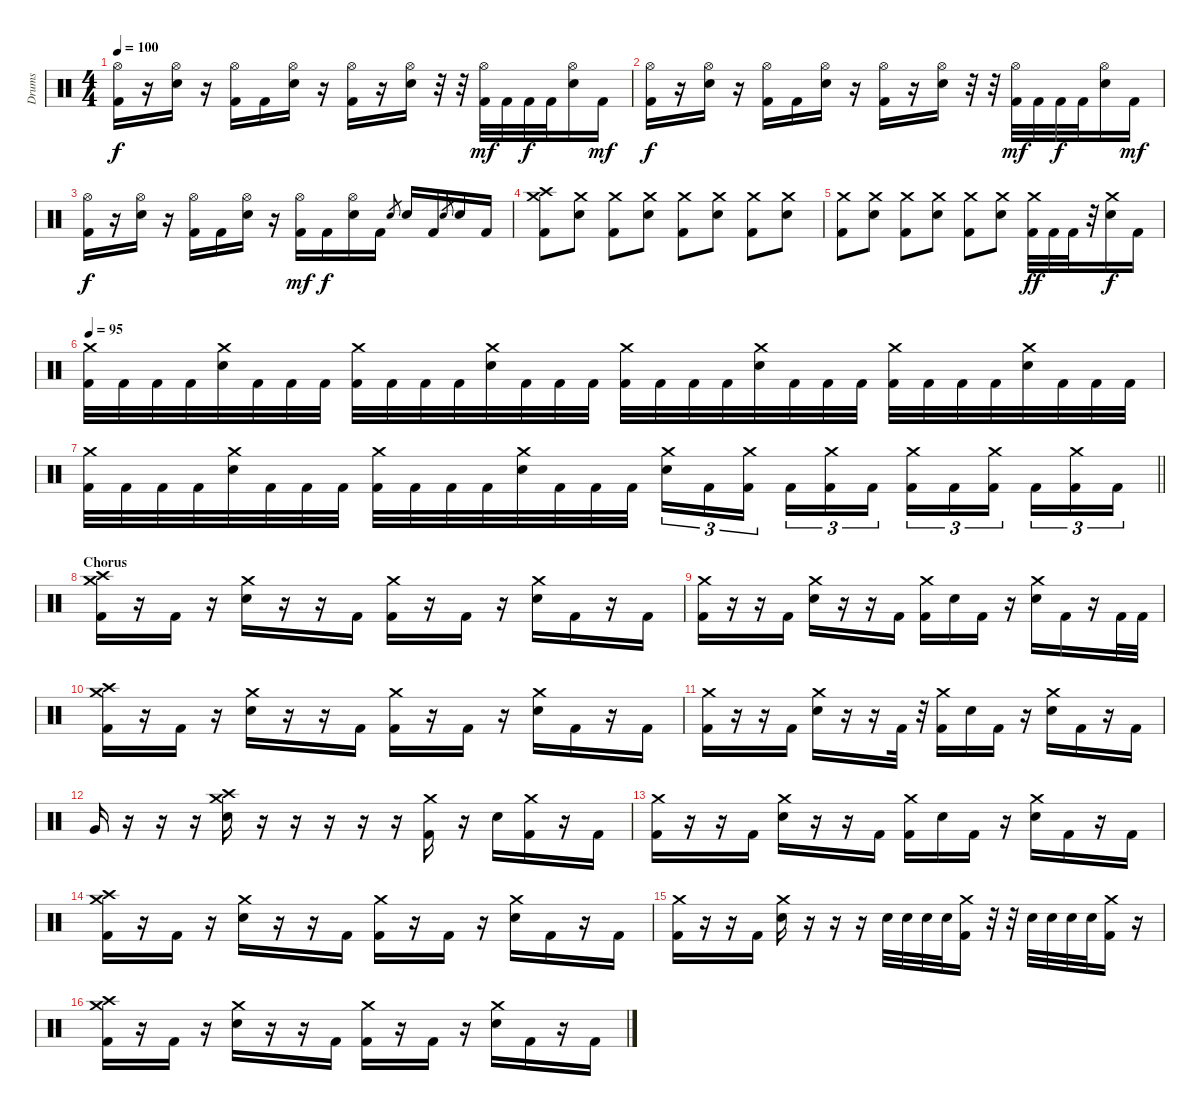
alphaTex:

\track ("Drums" "Drums") {instrument percussion}
\staff {score}
\articulation defaults
\ts (4 4)
\tempo 100
\clef neutral
\ks c
("Hi-Hat (open)" "Kick (hit) 2").16{dy f} r.16 ("Hi-Hat (open)" "Electric Snare (hit)").16 r.16 ("Hi-Hat (open)" "Kick (hit) 2").16 "Kick (hit) 2".16 ("Hi-Hat (open)" "Electric Snare (hit)").16 r.16 ("Hi-Hat (open)" "Kick (hit) 2").16 r.16 ("Hi-Hat (open)" "Electric Snare (hit)").16 r.32 r.32 ("Hi-Hat (open)" "Kick (hit) 2").32{dy mf} "Kick (hit) 2".32 "Kick (hit) 2".32{dy f} "Kick (hit) 2".32 ("Hi-Hat (open)" "Electric Snare (hit)").16 "Kick (hit) 2".16{dy mf} |
("Hi-Hat (open)" "Kick (hit) 2").16{dy f} r.16 ("Hi-Hat (open)" "Electric Snare (hit)").16 r.16 ("Hi-Hat (open)" "Kick (hit) 2").16 "Kick (hit) 2".16 ("Hi-Hat (open)" "Electric Snare (hit)").16 r.16 ("Hi-Hat (open)" "Kick (hit) 2").16 r.16 ("Hi-Hat (open)" "Electric Snare (hit)").16 r.32 r.32 ("Hi-Hat (open)" "Kick (hit) 2").32{dy mf} "Kick (hit) 2".32 "Kick (hit) 2".32{dy f} "Kick (hit) 2".32 ("Hi-Hat (open)" "Electric Snare (hit)").16 "Kick (hit) 2".16{dy mf} |
("Hi-Hat (open)" "Kick (hit) 2").16{dy f} r.16 ("Hi-Hat (open)" "Electric Snare (hit)").16 r.16 ("Hi-Hat (open)" "Kick (hit) 2").16 "Kick (hit) 2".16 ("Hi-Hat (open)" "Electric Snare (hit)").16 r.16 ("Hi-Hat (open)" "Kick (hit) 2").16{dy mf} "Kick (hit) 2".16{dy f} ("Hi-Hat (open)" "Electric Snare (hit)").16 "Kick (hit) 2".16 "Electric Snare (hit)".8{gr} "Electric Snare (hit)".16 "Kick (hit) 2".16 "Electric Snare (hit)".8{gr} "Electric Snare (hit)".16 "Kick (hit) 2".16 |
("Crash high (hit)" "Crash medium (hit)" "Kick (hit) 2").8 ("Crash medium (hit)" "Electric Snare (hit)").8 ("Crash medium (hit)" "Kick (hit) 2").8 ("Crash medium (hit)" "Electric Snare (hit)").8 ("Crash medium (hit)" "Kick (hit) 2").8 ("Crash medium (hit)" "Electric Snare (hit)").8 ("Crash medium (hit)" "Kick (hit) 2").8 ("Crash medium (hit)" "Electric Snare (hit)").8 |
("Crash medium (hit)" "Kick (hit) 2").8 ("Crash medium (hit)" "Electric Snare (hit)").8 ("Crash medium (hit)" "Kick (hit) 2").8 ("Crash medium (hit)" "Electric Snare (hit)").8 ("Crash medium (hit)" "Kick (hit) 2").8 ("Crash medium (hit)" "Electric Snare (hit)").8 ("Crash medium (hit)" "Kick (hit) 2").32{dy ff} "Kick (hit) 2".32 "Kick (hit) 2".32 r.32 ("Crash medium (hit)" "Electric Snare (hit)").16{dy f} "Kick (hit) 2".16 |
\tempo 95
("Crash medium (hit)" "Kick (hit) 2").32 "Kick (hit) 2".32 "Kick (hit) 2".32 "Kick (hit) 2".32 ("Crash medium (hit)" "Electric Snare (hit)").32 "Kick (hit) 2".32 "Kick (hit) 2".32 "Kick (hit) 2".32 ("Crash medium (hit)" "Kick (hit) 2").32 "Kick (hit) 2".32 "Kick (hit) 2".32 "Kick (hit) 2".32 ("Crash medium (hit)" "Electric Snare (hit)").32 "Kick (hit) 2".32 "Kick (hit) 2".32 "Kick (hit) 2".32 ("Crash medium (hit)" "Kick (hit) 2").32 "Kick (hit) 2".32 "Kick (hit) 2".32 "Kick (hit) 2".32 ("Crash medium (hit)" "Electric Snare (hit)").32 "Kick (hit) 2".32 "Kick (hit) 2".32 "Kick (hit) 2".32 ("Crash medium (hit)" "Kick (hit) 2").32 "Kick (hit) 2".32 "Kick (hit) 2".32 "Kick (hit) 2".32 ("Crash medium (hit)" "Electric Snare (hit)").32 "Kick (hit) 2".32 "Kick (hit) 2".32 "Kick (hit) 2".32 |
\barLineRight lightlight
("Crash medium (hit)" "Kick (hit) 2").32 "Kick (hit) 2".32 "Kick (hit) 2".32 "Kick (hit) 2".32 ("Crash medium (hit)" "Electric Snare (hit)").32 "Kick (hit) 2".32 "Kick (hit) 2".32 "Kick (hit) 2".32 ("Crash medium (hit)" "Kick (hit) 2").32 "Kick (hit) 2".32 "Kick (hit) 2".32 "Kick (hit) 2".32 ("Crash medium (hit)" "Electric Snare (hit)").32 "Kick (hit) 2".32 "Kick (hit) 2".32 "Kick (hit) 2".32 ("Crash medium (hit)" "Electric Snare (hit)").16{tu (3 2)} "Kick (hit) 2".16{tu (3 2)} ("Crash medium (hit)" "Kick (hit) 2").16{tu (3 2) beam splitsecondary} "Kick (hit) 2".16{tu (3 2)} ("Crash medium (hit)" "Kick (hit) 2").16{tu (3 2)} "Kick (hit) 2".16{tu (3 2)} ("Crash medium (hit)" "Kick (hit) 2").16{tu (3 2)} "Kick (hit) 2".16{tu (3 2)} ("Crash medium (hit)" "Kick (hit) 2").16{tu (3 2) beam splitsecondary} "Kick (hit) 2".16{tu (3 2)} ("Crash medium (hit)" "Kick (hit) 2").16{tu (3 2)} "Kick (hit) 2".16{tu (3 2)} |
\section ("" "Chorus")
("Crash high (hit)" "Crash medium (hit)" "Kick (hit) 2").16 r.16 "Kick (hit) 2".16 r.16 ("Crash medium (hit)" "Electric Snare (hit)").16 r.16 r.16 "Kick (hit) 2".16 ("Crash medium (hit)" "Kick (hit) 2").16 r.16 "Kick (hit) 2".16 r.16 ("Crash medium (hit)" "Electric Snare (hit)").16 "Kick (hit) 2".16 r.16 "Kick (hit) 2".16 |
("Crash medium (hit)" "Kick (hit) 2").16 r.16 r.16 "Kick (hit) 2".16 ("Crash medium (hit)" "Electric Snare (hit)").16 r.16 r.16 "Kick (hit) 2".16 ("Crash medium (hit)" "Kick (hit) 2").16 "Electric Snare (hit)".16 "Kick (hit) 2".16 r.16 ("Crash medium (hit)" "Electric Snare (hit)").16 "Kick (hit) 2".16 r.16 "Kick (hit) 2".32 "Kick (hit) 2".32 |
("Crash high (hit)" "Crash medium (hit)" "Kick (hit) 2").16 r.16 "Kick (hit) 2".16 r.16 ("Crash medium (hit)" "Electric Snare (hit)").16 r.16 r.16 "Kick (hit) 2".16 ("Crash medium (hit)" "Kick (hit) 2").16 r.16 "Kick (hit) 2".16 r.16 ("Crash medium (hit)" "Electric Snare (hit)").16 "Kick (hit) 2".16 r.16 "Kick (hit) 2".16 |
("Crash medium (hit)" "Kick (hit) 2").16 r.16 r.16 "Kick (hit) 2".16 ("Crash medium (hit)" "Electric Snare (hit)").16 r.16 r.16 "Kick (hit) 2".32 r.32 ("Crash medium (hit)" "Kick (hit) 2").16 "Electric Snare (hit)".16 "Kick (hit) 2".16 r.16 ("Crash medium (hit)" "Electric Snare (hit)").16 "Kick (hit) 2".16 r.16 "Kick (hit) 2".16 |
"Very Low Tom (hit)".16 r.16 r.16 r.16 ("Crash high (hit)" "Crash medium (hit)" "Electric Snare (hit)").16 r.16 r.16 r.16 r.16 r.16 ("Crash medium (hit)" "Kick (hit) 2").16 r.16 "Electric Snare (hit)".16 ("Crash medium (hit)" "Kick (hit) 2").16 r.16 "Kick (hit) 2".16 |
("Crash medium (hit)" "Kick (hit) 2").16 r.16 r.16 "Kick (hit) 2".16 ("Crash medium (hit)" "Electric Snare (hit)").16 r.16 r.16 "Kick (hit) 2".16 ("Crash medium (hit)" "Kick (hit) 2").16 "Electric Snare (hit)".16 "Kick (hit) 2".16 r.16 ("Crash medium (hit)" "Electric Snare (hit)").16 "Kick (hit) 2".16 r.16 "Kick (hit) 2".16 |
("Crash high (hit)" "Crash medium (hit)" "Kick (hit) 2").16 r.16 "Kick (hit) 2".16 r.16 ("Crash medium (hit)" "Electric Snare (hit)").16 r.16 r.16 "Kick (hit) 2".16 ("Crash medium (hit)" "Kick (hit) 2").16 r.16 "Kick (hit) 2".16 r.16 ("Crash medium (hit)" "Electric Snare (hit)").16 "Kick (hit) 2".16 r.16 "Kick (hit) 2".16 |
("Crash medium (hit)" "Kick (hit) 2").16 r.16 r.16 "Kick (hit) 2".16 ("Crash medium (hit)" "Electric Snare (hit)").16 r.16 r.16 r.16 "Electric Snare (hit)".32 "Electric Snare (hit)".32 "Electric Snare (hit)".32 "Electric Snare (hit)".32 ("Crash medium (hit)" "Kick (hit) 2").16 r.32 r.32 "Electric Snare (hit)".32 "Electric Snare (hit)".32 "Electric Snare (hit)".32 "Electric Snare (hit)".32 ("Crash medium (hit)" "Kick (hit) 2").16 r.16 |
("Crash high (hit)" "Crash medium (hit)" "Kick (hit) 2").16 r.16 "Kick (hit) 2".16 r.16 ("Crash medium (hit)" "Electric Snare (hit)").16 r.16 r.16 "Kick (hit) 2".16 ("Crash medium (hit)" "Kick (hit) 2").16 r.16 "Kick (hit) 2".16 r.16 ("Crash medium (hit)" "Electric Snare (hit)").16 "Kick (hit) 2".16 r.16 "Kick (hit) 2".16
